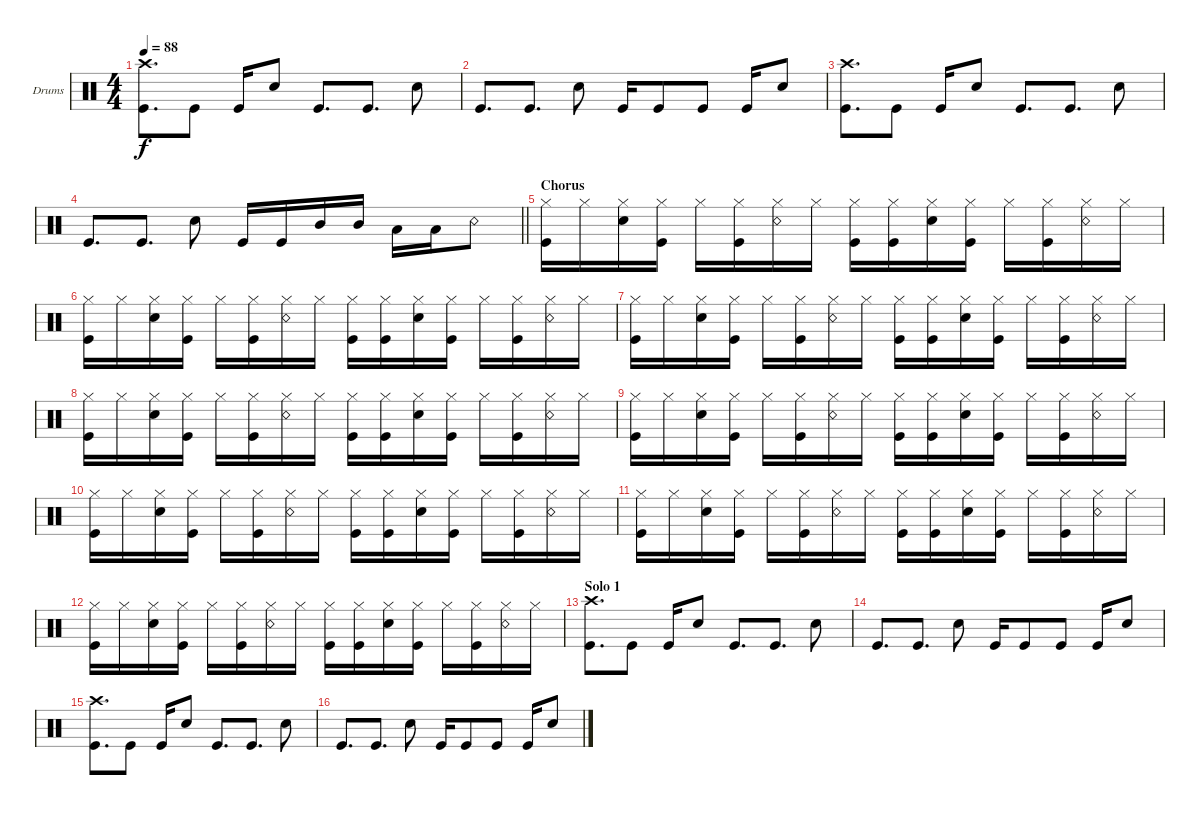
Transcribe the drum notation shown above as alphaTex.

\bracketExtendMode groupsimilarinstruments
\firstSystemTrackNameOrientation horizontal
\otherSystemsTrackNameOrientation horizontal
\track ("Drums" "Drums") {instrument percussion}
\staff {score}
\articulation defaults
\ts (4 4)
\tempo 88
\clef neutral
\ks c
("Kick (hit)" "Crash high (hit)").8{d dy f} "Kick (hit)".8 "Kick (hit)".16 "Snare (hit) 2".8 "Kick (hit)".8{d} "Kick (hit)".8{d} "Snare (hit) 2".8 |
"Kick (hit)".8{d} "Kick (hit)".8{d} "Snare (hit) 2".8 "Kick (hit)".16 "Kick (hit)".8 "Kick (hit)".8 "Kick (hit)".16 "Snare (hit) 2".8 |
("Kick (hit)" "Crash high (hit)").8{d} "Kick (hit)".8 "Kick (hit)".16 "Snare (hit) 2".8 "Kick (hit)".8{d} "Kick (hit)".8{d} "Snare (hit) 2".8 |
\barLineRight lightlight "Kick (hit)".8{d} "Kick (hit)".8{d} "Snare (hit) 2".8 "Kick (hit)".16 "Kick (hit)".16 "Mid Tom (hit)".16 "Mid Tom (hit)".16 "Low Tom (hit)".16 "Low Tom (hit)".16 "Snare (rim shot)".8
|
\section ("" "Chorus")
("Hi-Hat (closed)" "Kick (hit)").16 "Hi-Hat (closed)".16 ("Hi-Hat (closed)" "Snare (hit) 2").16 ("Hi-Hat (closed)" "Kick (hit)").16 "Hi-Hat (closed)".16 ("Hi-Hat (closed)" "Kick (hit)").16 ("Hi-Hat (closed)" "Snare (rim shot)").16 "Hi-Hat (closed)".16 ("Hi-Hat (closed)" "Kick (hit)").16 ("Hi-Hat (closed)" "Kick (hit)").16 ("Hi-Hat (closed)" "Snare (hit) 2").16 ("Hi-Hat (closed)" "Kick (hit)").16 "Hi-Hat (closed)".16 ("Hi-Hat (closed)" "Kick (hit)").16 ("Hi-Hat (closed)" "Snare (rim shot)").16 "Hi-Hat (closed)".16 |
("Hi-Hat (closed)" "Kick (hit)").16 "Hi-Hat (closed)".16 ("Hi-Hat (closed)" "Snare (hit) 2").16 ("Hi-Hat (closed)" "Kick (hit)").16 "Hi-Hat (closed)".16 ("Hi-Hat (closed)" "Kick (hit)").16 ("Hi-Hat (closed)" "Snare (rim shot)").16 "Hi-Hat (closed)".16 ("Hi-Hat (closed)" "Kick (hit)").16 ("Hi-Hat (closed)" "Kick (hit)").16 ("Hi-Hat (closed)" "Snare (hit) 2").16 ("Hi-Hat (closed)" "Kick (hit)").16 "Hi-Hat (closed)".16 ("Hi-Hat (closed)" "Kick (hit)").16 ("Hi-Hat (closed)" "Snare (rim shot)").16 "Hi-Hat (closed)".16 |
("Hi-Hat (closed)" "Kick (hit)").16 "Hi-Hat (closed)".16 ("Hi-Hat (closed)" "Snare (hit) 2").16 ("Hi-Hat (closed)" "Kick (hit)").16 "Hi-Hat (closed)".16 ("Hi-Hat (closed)" "Kick (hit)").16 ("Hi-Hat (closed)" "Snare (rim shot)").16 "Hi-Hat (closed)".16 ("Hi-Hat (closed)" "Kick (hit)").16 ("Hi-Hat (closed)" "Kick (hit)").16 ("Hi-Hat (closed)" "Snare (hit) 2").16 ("Hi-Hat (closed)" "Kick (hit)").16 "Hi-Hat (closed)".16 ("Hi-Hat (closed)" "Kick (hit)").16 ("Hi-Hat (closed)" "Snare (rim shot)").16 "Hi-Hat (closed)".16 |
("Hi-Hat (closed)" "Kick (hit)").16 "Hi-Hat (closed)".16 ("Hi-Hat (closed)" "Snare (hit) 2").16 ("Hi-Hat (closed)" "Kick (hit)").16 "Hi-Hat (closed)".16 ("Hi-Hat (closed)" "Kick (hit)").16 ("Hi-Hat (closed)" "Snare (rim shot)").16 "Hi-Hat (closed)".16 ("Hi-Hat (closed)" "Kick (hit)").16 ("Hi-Hat (closed)" "Kick (hit)").16 ("Hi-Hat (closed)" "Snare (hit) 2").16 ("Hi-Hat (closed)" "Kick (hit)").16 "Hi-Hat (closed)".16 ("Hi-Hat (closed)" "Kick (hit)").16 ("Hi-Hat (closed)" "Snare (rim shot)").16 "Hi-Hat (closed)".16 |
("Hi-Hat (closed)" "Kick (hit)").16 "Hi-Hat (closed)".16 ("Hi-Hat (closed)" "Snare (hit) 2").16 ("Hi-Hat (closed)" "Kick (hit)").16 "Hi-Hat (closed)".16 ("Hi-Hat (closed)" "Kick (hit)").16 ("Hi-Hat (closed)" "Snare (rim shot)").16 "Hi-Hat (closed)".16 ("Hi-Hat (closed)" "Kick (hit)").16 ("Hi-Hat (closed)" "Kick (hit)").16 ("Hi-Hat (closed)" "Snare (hit) 2").16 ("Hi-Hat (closed)" "Kick (hit)").16 "Hi-Hat (closed)".16 ("Hi-Hat (closed)" "Kick (hit)").16 ("Hi-Hat (closed)" "Snare (rim shot)").16 "Hi-Hat (closed)".16 |
("Hi-Hat (closed)" "Kick (hit)").16 "Hi-Hat (closed)".16 ("Hi-Hat (closed)" "Snare (hit) 2").16 ("Hi-Hat (closed)" "Kick (hit)").16 "Hi-Hat (closed)".16 ("Hi-Hat (closed)" "Kick (hit)").16 ("Hi-Hat (closed)" "Snare (rim shot)").16 "Hi-Hat (closed)".16 ("Hi-Hat (closed)" "Kick (hit)").16 ("Hi-Hat (closed)" "Kick (hit)").16 ("Hi-Hat (closed)" "Snare (hit) 2").16 ("Hi-Hat (closed)" "Kick (hit)").16 "Hi-Hat (closed)".16 ("Hi-Hat (closed)" "Kick (hit)").16 ("Hi-Hat (closed)" "Snare (rim shot)").16 "Hi-Hat (closed)".16 |
("Hi-Hat (closed)" "Kick (hit)").16 "Hi-Hat (closed)".16 ("Hi-Hat (closed)" "Snare (hit) 2").16 ("Hi-Hat (closed)" "Kick (hit)").16 "Hi-Hat (closed)".16 ("Hi-Hat (closed)" "Kick (hit)").16 ("Hi-Hat (closed)" "Snare (rim shot)").16 "Hi-Hat (closed)".16 ("Hi-Hat (closed)" "Kick (hit)").16 ("Hi-Hat (closed)" "Kick (hit)").16 ("Hi-Hat (closed)" "Snare (hit) 2").16 ("Hi-Hat (closed)" "Kick (hit)").16 "Hi-Hat (closed)".16 ("Hi-Hat (closed)" "Kick (hit)").16 ("Hi-Hat (closed)" "Snare (rim shot)").16 "Hi-Hat (closed)".16 |
("Hi-Hat (closed)" "Kick (hit)").16 "Hi-Hat (closed)".16 ("Hi-Hat (closed)" "Snare (hit) 2").16 ("Hi-Hat (closed)" "Kick (hit)").16 "Hi-Hat (closed)".16 ("Hi-Hat (closed)" "Kick (hit)").16 ("Hi-Hat (closed)" "Snare (rim shot)").16 "Hi-Hat (closed)".16 ("Hi-Hat (closed)" "Kick (hit)").16 ("Hi-Hat (closed)" "Kick (hit)").16 ("Hi-Hat (closed)" "Snare (hit) 2").16 ("Hi-Hat (closed)" "Kick (hit)").16 "Hi-Hat (closed)".16 ("Hi-Hat (closed)" "Kick (hit)").16 ("Hi-Hat (closed)" "Snare (rim shot)").16 "Hi-Hat (closed)".16 |
\section ("" "Solo 1")
("Kick (hit)" "Crash high (hit)").8{d} "Kick (hit)".8 "Kick (hit)".16 "Snare (hit) 2".8 "Kick (hit)".8{d} "Kick (hit)".8{d} "Snare (hit) 2".8 |
"Kick (hit)".8{d} "Kick (hit)".8{d} "Snare (hit) 2".8 "Kick (hit)".16 "Kick (hit)".8 "Kick (hit)".8 "Kick (hit)".16 "Snare (hit) 2".8 |
("Kick (hit)" "Crash high (hit)").8{d} "Kick (hit)".8 "Kick (hit)".16 "Snare (hit) 2".8 "Kick (hit)".8{d} "Kick (hit)".8{d} "Snare (hit) 2".8 |
"Kick (hit)".8{d} "Kick (hit)".8{d} "Snare (hit) 2".8 "Kick (hit)".16 "Kick (hit)".8 "Kick (hit)".8 "Kick (hit)".16 "Snare (hit) 2".8
